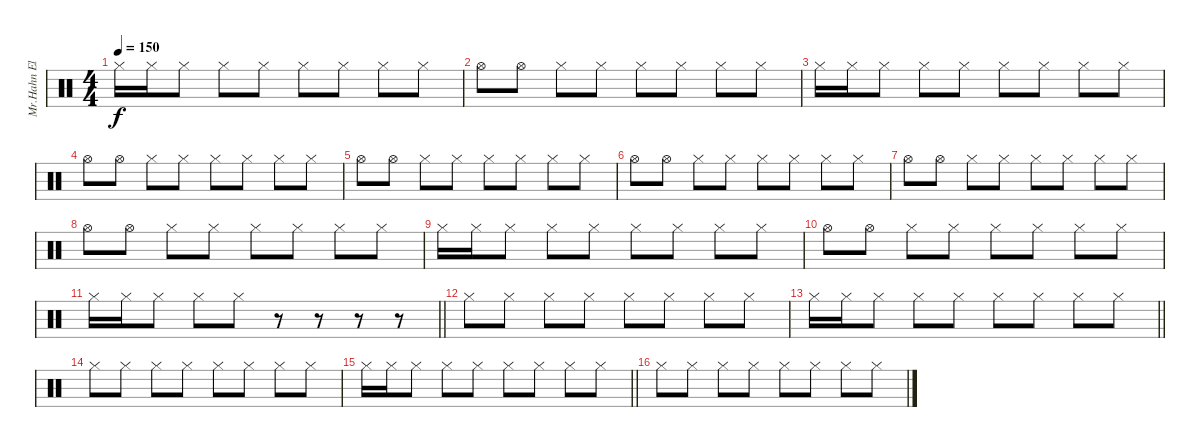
\track ("Mr.Hahn Eletronic Drums" "Mr.Hahn El") {instrument percussion}
\staff {score}
\articulation defaults
\ts (4 4)
\tempo 150
\clef neutral
\ks c "Hi-Hat (closed)".16{dy f} "Hi-Hat (closed)".16 "Hi-Hat (closed)".8 "Hi-Hat (closed)".8 "Hi-Hat (closed)".8 "Hi-Hat (closed)".8 "Hi-Hat (closed)".8 "Hi-Hat (closed)".8 "Hi-Hat (closed)".8
|
"Hi-Hat (open)".8 "Hi-Hat (open)".8 "Hi-Hat (closed)".8 "Hi-Hat (closed)".8 "Hi-Hat (closed)".8 "Hi-Hat (closed)".8 "Hi-Hat (closed)".8 "Hi-Hat (closed)".8 |
"Hi-Hat (closed)".16 "Hi-Hat (closed)".16 "Hi-Hat (closed)".8 "Hi-Hat (closed)".8 "Hi-Hat (closed)".8 "Hi-Hat (closed)".8 "Hi-Hat (closed)".8 "Hi-Hat (closed)".8 "Hi-Hat (closed)".8 |
"Hi-Hat (open)".8 "Hi-Hat (open)".8 "Hi-Hat (closed)".8 "Hi-Hat (closed)".8 "Hi-Hat (closed)".8 "Hi-Hat (closed)".8 "Hi-Hat (closed)".8 "Hi-Hat (closed)".8 |
"Hi-Hat (open)".8 "Hi-Hat (open)".8 "Hi-Hat (closed)".8 "Hi-Hat (closed)".8 "Hi-Hat (closed)".8 "Hi-Hat (closed)".8 "Hi-Hat (closed)".8 "Hi-Hat (closed)".8 |
"Hi-Hat (open)".8 "Hi-Hat (open)".8 "Hi-Hat (closed)".8 "Hi-Hat (closed)".8 "Hi-Hat (closed)".8 "Hi-Hat (closed)".8 "Hi-Hat (closed)".8 "Hi-Hat (closed)".8 |
"Hi-Hat (open)".8 "Hi-Hat (open)".8 "Hi-Hat (closed)".8 "Hi-Hat (closed)".8 "Hi-Hat (closed)".8 "Hi-Hat (closed)".8 "Hi-Hat (closed)".8 "Hi-Hat (closed)".8 |
"Hi-Hat (open)".8 "Hi-Hat (open)".8 "Hi-Hat (closed)".8 "Hi-Hat (closed)".8 "Hi-Hat (closed)".8 "Hi-Hat (closed)".8 "Hi-Hat (closed)".8 "Hi-Hat (closed)".8 |
"Hi-Hat (closed)".16 "Hi-Hat (closed)".16 "Hi-Hat (closed)".8 "Hi-Hat (closed)".8 "Hi-Hat (closed)".8 "Hi-Hat (closed)".8 "Hi-Hat (closed)".8 "Hi-Hat (closed)".8 "Hi-Hat (closed)".8 |
"Hi-Hat (open)".8 "Hi-Hat (open)".8 "Hi-Hat (closed)".8 "Hi-Hat (closed)".8 "Hi-Hat (closed)".8 "Hi-Hat (closed)".8 "Hi-Hat (closed)".8 "Hi-Hat (closed)".8 |
\barLineRight lightlight "Hi-Hat (closed)".16 "Hi-Hat (closed)".16 "Hi-Hat (closed)".8 "Hi-Hat (closed)".8 "Hi-Hat (closed)".8
r.8 r.8 r.8 r.8 |
"Hi-Hat (closed)".8 "Hi-Hat (closed)".8 "Hi-Hat (closed)".8 "Hi-Hat (closed)".8 "Hi-Hat (closed)".8 "Hi-Hat (closed)".8 "Hi-Hat (closed)".8 "Hi-Hat (closed)".8 |
\barLineRight lightlight "Hi-Hat (closed)".16 "Hi-Hat (closed)".16 "Hi-Hat (closed)".8 "Hi-Hat (closed)".8 "Hi-Hat (closed)".8 "Hi-Hat (closed)".8 "Hi-Hat (closed)".8 "Hi-Hat (closed)".8 "Hi-Hat (closed)".8
|
"Hi-Hat (closed)".8 "Hi-Hat (closed)".8 "Hi-Hat (closed)".8 "Hi-Hat (closed)".8 "Hi-Hat (closed)".8 "Hi-Hat (closed)".8 "Hi-Hat (closed)".8 "Hi-Hat (closed)".8 |
\barLineRight lightlight "Hi-Hat (closed)".16 "Hi-Hat (closed)".16 "Hi-Hat (closed)".8 "Hi-Hat (closed)".8 "Hi-Hat (closed)".8 "Hi-Hat (closed)".8 "Hi-Hat (closed)".8 "Hi-Hat (closed)".8 "Hi-Hat (closed)".8
|
"Hi-Hat (closed)".8 "Hi-Hat (closed)".8 "Hi-Hat (closed)".8 "Hi-Hat (closed)".8 "Hi-Hat (closed)".8 "Hi-Hat (closed)".8 "Hi-Hat (closed)".8 "Hi-Hat (closed)".8
